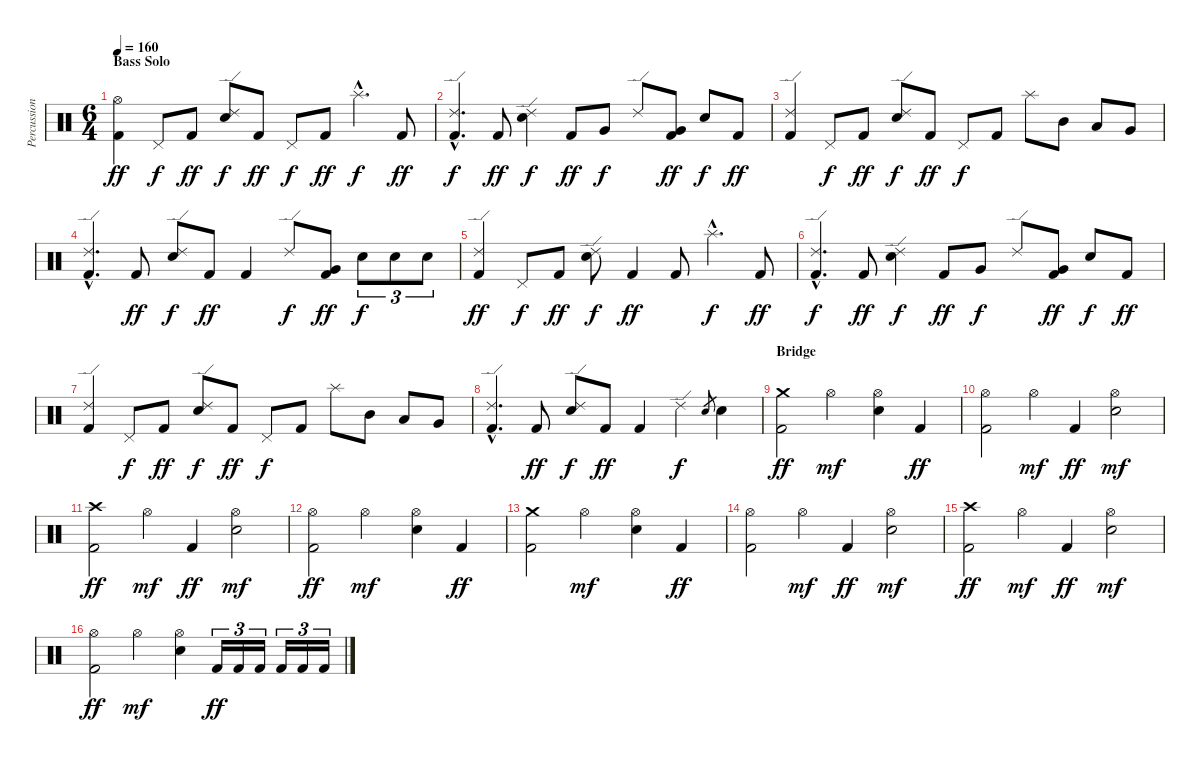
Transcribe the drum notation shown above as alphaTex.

\track ("Percussion" "Percussion") {instrument percussion}
\staff {score}
\articulation defaults
\ts (6 4)
\section ("" "Bass Solo")
\tempo 160
\clef neutral
\ks c
("Hi-Hat (open)" "Kick (hit) 2").4{dy ff} "Pedal Hi-Hat (hit)".8{dy f} "Kick (hit) 2".8{dy ff} ("Ride (edge) 2" "Electric Snare (hit)").8{dy f} "Kick (hit) 2".8{dy ff} "Pedal Hi-Hat (hit)".8{dy f} "Kick (hit) 2".8{dy ff} "Splash (hit)"{hac}.4{d dy f} "Kick (hit) 2".8{dy ff} |
("Ride (edge) 2"{hac} "Kick (hit) 2"{hac}).4{d dy f} "Kick (hit) 2".8{dy ff} ("Ride (edge) 2" "Electric Snare (hit)").4{dy f} "Kick (hit) 2".8{dy ff} "Very Low Tom (hit)".8{dy f} "Ride (edge) 2".8 ("Very Low Tom (hit)" "Kick (hit) 2").8{dy ff} "Electric Snare (hit)".8{dy f} "Kick (hit) 2".8{dy ff} |
("Ride (edge) 2" "Kick (hit) 2").4 "Pedal Hi-Hat (hit)".8{dy f} "Kick (hit) 2".8{dy ff} ("Ride (edge) 2" "Electric Snare (hit)").8{dy f} "Kick (hit) 2".8{dy ff} "Pedal Hi-Hat (hit)".8{dy f} "Kick (hit) 2".8 "Splash (hit)".8 "Mid Tom (hit)".8 "Low Tom (hit)".8 "Very Low Tom (hit)".8 |
("Ride (edge) 2"{hac} "Kick (hit) 2"{hac}).4{d} "Kick (hit) 2".8{dy ff} ("Ride (edge) 2" "Electric Snare (hit)").8{dy f} "Kick (hit) 2".8{dy ff} "Kick (hit) 2".4 "Ride (edge) 2".8{dy f} ("Very Low Tom (hit)" "Kick (hit) 2").8{dy ff} "Electric Snare (hit)".8{tu (3 2) dy f} "Electric Snare (hit)".8{tu (3 2)} "Electric Snare (hit)".8{tu (3 2)} |
("Ride (edge) 2" "Kick (hit) 2").4{dy ff} "Pedal Hi-Hat (hit)".8{dy f} "Kick (hit) 2".8{dy ff} ("Ride (edge) 2" "Electric Snare (hit)").8{dy f} "Kick (hit) 2".4{dy ff} "Kick (hit) 2".8 "Splash (hit)"{hac}.4{d dy f} "Kick (hit) 2".8{dy ff} |
("Ride (edge) 2"{hac} "Kick (hit) 2"{hac}).4{d dy f} "Kick (hit) 2".8{dy ff} ("Ride (edge) 2" "Electric Snare (hit)").4{dy f} "Kick (hit) 2".8{dy ff} "Very Low Tom (hit)".8{dy f} "Ride (edge) 2".8 ("Very Low Tom (hit)" "Kick (hit) 2").8{dy ff} "Electric Snare (hit)".8{dy f} "Kick (hit) 2".8{dy ff} |
("Ride (edge) 2" "Kick (hit) 2").4 "Pedal Hi-Hat (hit)".8{dy f} "Kick (hit) 2".8{dy ff} ("Ride (edge) 2" "Electric Snare (hit)").8{dy f} "Kick (hit) 2".8{dy ff} "Pedal Hi-Hat (hit)".8{dy f} "Kick (hit) 2".8 "Splash (hit)".8 "Mid Tom (hit)".8 "Low Tom (hit)".8 "Very Low Tom (hit)".8 |
("Ride (edge) 2"{hac} "Kick (hit) 2"{hac}).4{d} "Kick (hit) 2".8{dy ff} ("Ride (edge) 2" "Electric Snare (hit)").8{dy f} "Kick (hit) 2".8{dy ff} "Kick (hit) 2".4 "Ride (edge) 2".4{dy f} "Electric Snare (hit)".8{gr} "Electric Snare (hit)".4 |
\section ("" "Bridge")
("Crash medium (hit)" "Kick (hit) 2").2{dy ff} "Hi-Hat (open)".2{dy mf} ("Hi-Hat (open)" "Electric Snare (hit)").4 "Kick (hit) 2".4{dy ff} |
("Hi-Hat (open)" "Kick (hit) 2").2 "Hi-Hat (open)".4{dy mf} "Kick (hit) 2".4{dy ff} ("Hi-Hat (open)" "Electric Snare (hit)").2{dy mf} |
("Crash high (hit)" "Kick (hit) 2").2{dy ff} "Hi-Hat (open)".4{dy mf} "Kick (hit) 2".4{dy ff} ("Hi-Hat (open)" "Electric Snare (hit)").2{dy mf} |
("Hi-Hat (open)" "Kick (hit) 2").2{dy ff} "Hi-Hat (open)".2{dy mf} ("Hi-Hat (open)" "Electric Snare (hit)").4 "Kick (hit) 2".4{dy ff} |
("Crash medium (hit)" "Kick (hit) 2").2 "Hi-Hat (open)".2{dy mf} ("Hi-Hat (open)" "Electric Snare (hit)").4 "Kick (hit) 2".4{dy ff} |
("Hi-Hat (open)" "Kick (hit) 2").2 "Hi-Hat (open)".4{dy mf} "Kick (hit) 2".4{dy ff} ("Hi-Hat (open)" "Electric Snare (hit)").2{dy mf} |
("Crash high (hit)" "Kick (hit) 2").2{dy ff} "Hi-Hat (open)".4{dy mf} "Kick (hit) 2".4{dy ff} ("Hi-Hat (open)" "Electric Snare (hit)").2{dy mf} |
("Hi-Hat (open)" "Kick (hit) 2").2{dy ff} "Hi-Hat (open)".2{dy mf} ("Hi-Hat (open)" "Electric Snare (hit)").4 "Kick (hit) 2".16{tu (3 2) dy ff} "Kick (hit) 2".16{tu (3 2)} "Kick (hit) 2".16{tu (3 2)} "Kick (hit) 2".16{tu (3 2)} "Kick (hit) 2".16{tu (3 2)} "Kick (hit) 2".16{tu (3 2)}
